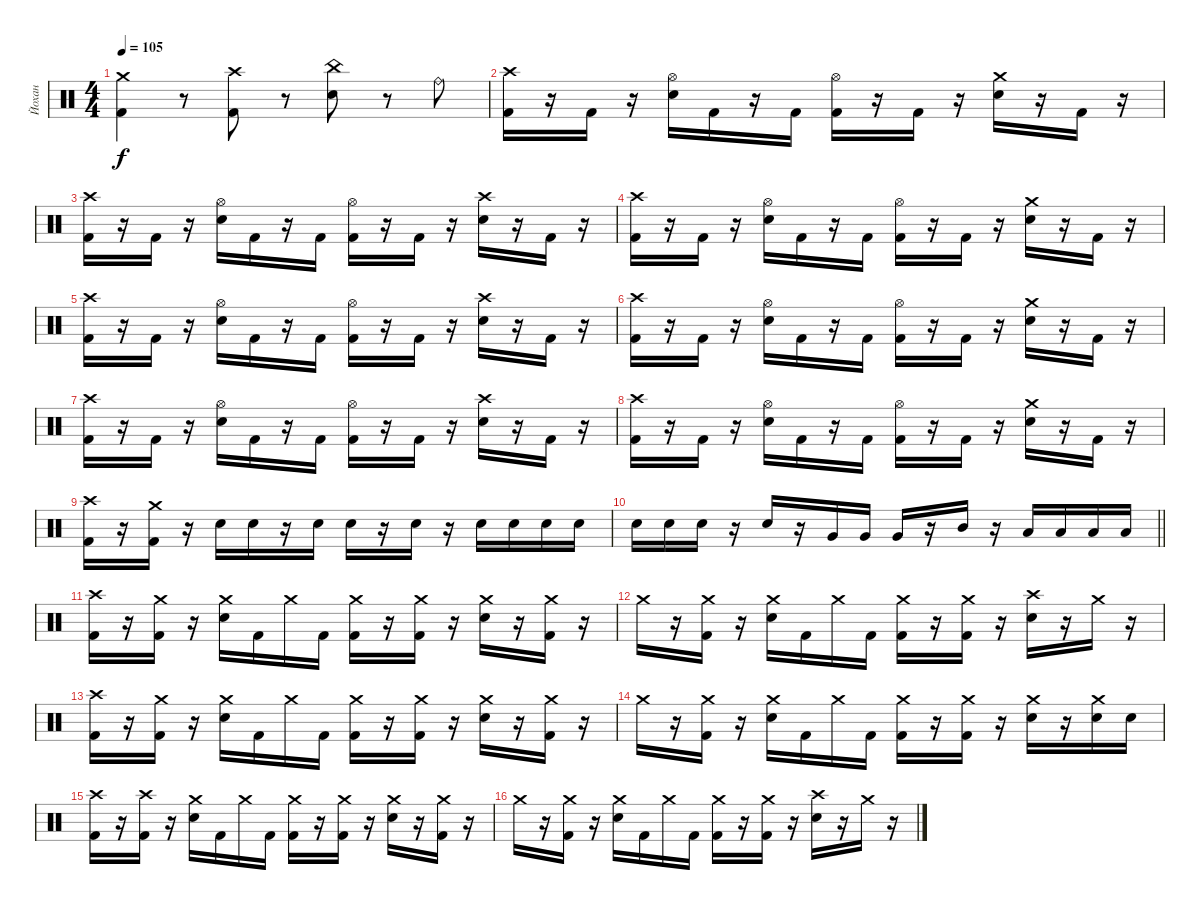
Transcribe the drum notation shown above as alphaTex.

\track ("Йохан" "Йохан") {instrument percussion}
\staff {score}
\articulation defaults
\ts (4 4)
\tempo 105
\clef neutral
\ks c
("Crash medium (hit)" "Kick (hit) 2").4{dy f} r.8 ("Crash high (hit)" "Kick (hit) 2").8 r.8 ("China (hit)" "Snare (hit) 2").8 r.8 "Ride (bell)".8 |
("Crash high (hit)" "Kick (hit) 2").16 r.16 "Kick (hit) 2".16 r.16 ("Hi-Hat (open)" "Snare (hit) 2").16 "Kick (hit) 2".16 r.16 "Kick (hit) 2".16 ("Hi-Hat (open)" "Kick (hit) 2").16 r.16 "Kick (hit) 2".16 r.16 ("Crash medium (hit)" "Snare (hit) 2").16 r.16 "Kick (hit) 2".16 r.16 |
("Crash high (hit)" "Kick (hit) 2").16 r.16 "Kick (hit) 2".16 r.16 ("Hi-Hat (open)" "Snare (hit) 2").16 "Kick (hit) 2".16 r.16 "Kick (hit) 2".16 ("Hi-Hat (open)" "Kick (hit) 2").16 r.16 "Kick (hit) 2".16 r.16 ("Crash high (hit)" "Snare (hit) 2").16 r.16 "Kick (hit) 2".16 r.16 |
("Crash high (hit)" "Kick (hit) 2").16 r.16 "Kick (hit) 2".16 r.16 ("Hi-Hat (open)" "Snare (hit) 2").16 "Kick (hit) 2".16 r.16 "Kick (hit) 2".16 ("Hi-Hat (open)" "Kick (hit) 2").16 r.16 "Kick (hit) 2".16 r.16 ("Crash medium (hit)" "Snare (hit) 2").16 r.16 "Kick (hit) 2".16 r.16 |
("Crash high (hit)" "Kick (hit) 2").16 r.16 "Kick (hit) 2".16 r.16 ("Hi-Hat (open)" "Snare (hit) 2").16 "Kick (hit) 2".16 r.16 "Kick (hit) 2".16 ("Hi-Hat (open)" "Kick (hit) 2").16 r.16 "Kick (hit) 2".16 r.16 ("Crash high (hit)" "Snare (hit) 2").16 r.16 "Kick (hit) 2".16 r.16 |
("Crash high (hit)" "Kick (hit) 2").16 r.16 "Kick (hit) 2".16 r.16 ("Hi-Hat (open)" "Snare (hit) 2").16 "Kick (hit) 2".16 r.16 "Kick (hit) 2".16 ("Hi-Hat (open)" "Kick (hit) 2").16 r.16 "Kick (hit) 2".16 r.16 ("Crash medium (hit)" "Snare (hit) 2").16 r.16 "Kick (hit) 2".16 r.16 |
("Crash high (hit)" "Kick (hit) 2").16 r.16 "Kick (hit) 2".16 r.16 ("Hi-Hat (open)" "Snare (hit) 2").16 "Kick (hit) 2".16 r.16 "Kick (hit) 2".16 ("Hi-Hat (open)" "Kick (hit) 2").16 r.16 "Kick (hit) 2".16 r.16 ("Crash high (hit)" "Snare (hit) 2").16 r.16 "Kick (hit) 2".16 r.16 |
("Crash high (hit)" "Kick (hit) 2").16 r.16 "Kick (hit) 2".16 r.16 ("Hi-Hat (open)" "Snare (hit) 2").16 "Kick (hit) 2".16 r.16 "Kick (hit) 2".16 ("Hi-Hat (open)" "Kick (hit) 2").16 r.16 "Kick (hit) 2".16 r.16 ("Crash medium (hit)" "Snare (hit) 2").16 r.16 "Kick (hit) 2".16 r.16 |
("Crash high (hit)" "Kick (hit) 2").16 r.16 ("Crash medium (hit)" "Kick (hit) 2").16 r.16 "Snare (hit) 2".16 "Snare (hit) 2".16 r.16 "Snare (hit) 2".16 "Snare (hit) 2".16 r.16 "Snare (hit) 2".16 r.16 "Snare (hit) 2".16 "Snare (hit) 2".16 "Snare (hit) 2".16 "Snare (hit) 2".16 |
\barLineRight lightlight "Snare (hit) 2".16 "Snare (hit) 2".16 "Snare (hit) 2".16
r.16 "Snare (hit) 2".16 r.16 "Very Low Tom (hit)".16 "Very Low Tom (hit)".16 "Very Low Tom (hit)".16 r.16 "Mid Tom (hit)".16 r.16 "Low Tom (hit)".16 "Low Tom (hit)".16 "Low Tom (hit)".16 "Low Tom (hit)".16 |
("Crash high (hit)" "Kick (hit) 2").16 r.16 ("Crash medium (hit)" "Kick (hit) 2").16 r.16 ("Crash medium (hit)" "Snare (hit) 2").16 "Kick (hit) 2".16 "Crash medium (hit)".16 "Kick (hit) 2".16 ("Crash medium (hit)" "Kick (hit) 2").16 r.16 ("Crash medium (hit)" "Kick (hit) 2").16 r.16 ("Crash medium (hit)" "Snare (hit) 2").16 r.16 ("Crash medium (hit)" "Kick (hit) 2").16 r.16 |
"Crash medium (hit)".16 r.16 ("Crash medium (hit)" "Kick (hit) 2").16 r.16 ("Crash medium (hit)" "Snare (hit) 2").16 "Kick (hit) 2".16 "Crash medium (hit)".16 "Kick (hit) 2".16 ("Crash medium (hit)" "Kick (hit) 2").16 r.16 ("Crash medium (hit)" "Kick (hit) 2").16 r.16 ("Crash high (hit)" "Snare (hit) 2").16 r.16 "Crash medium (hit)".16 r.16 |
("Crash high (hit)" "Kick (hit) 2").16 r.16 ("Crash medium (hit)" "Kick (hit) 2").16 r.16 ("Crash medium (hit)" "Snare (hit) 2").16 "Kick (hit) 2".16 "Crash medium (hit)".16 "Kick (hit) 2".16 ("Crash medium (hit)" "Kick (hit) 2").16 r.16 ("Crash medium (hit)" "Kick (hit) 2").16 r.16 ("Crash medium (hit)" "Snare (hit) 2").16 r.16 ("Crash medium (hit)" "Kick (hit) 2").16 r.16 |
"Crash medium (hit)".16 r.16 ("Crash medium (hit)" "Kick (hit) 2").16 r.16 ("Crash medium (hit)" "Snare (hit) 2").16 "Kick (hit) 2".16 "Crash medium (hit)".16 "Kick (hit) 2".16 ("Crash medium (hit)" "Kick (hit) 2").16 r.16 ("Crash medium (hit)" "Kick (hit) 2").16 r.16 ("Crash medium (hit)" "Snare (hit) 2").16 r.16 ("Crash medium (hit)" "Snare (hit) 2").16 "Snare (hit) 2".16 |
("Crash high (hit)" "Kick (hit) 2").16 r.16 ("Crash high (hit)" "Kick (hit) 2").16 r.16 ("Crash medium (hit)" "Snare (hit) 2").16 "Kick (hit) 2".16 "Crash medium (hit)".16 "Kick (hit) 2".16 ("Crash medium (hit)" "Kick (hit) 2").16 r.16 ("Crash medium (hit)" "Kick (hit) 2").16 r.16 ("Crash medium (hit)" "Snare (hit) 2").16 r.16 ("Crash medium (hit)" "Kick (hit) 2").16 r.16 |
"Crash medium (hit)".16 r.16 ("Crash medium (hit)" "Kick (hit) 2").16 r.16 ("Crash medium (hit)" "Snare (hit) 2").16 "Kick (hit) 2".16 "Crash medium (hit)".16 "Kick (hit) 2".16 ("Crash medium (hit)" "Kick (hit) 2").16 r.16 ("Crash medium (hit)" "Kick (hit) 2").16 r.16 ("Crash high (hit)" "Snare (hit) 2").16 r.16 "Crash medium (hit)".16 r.16
